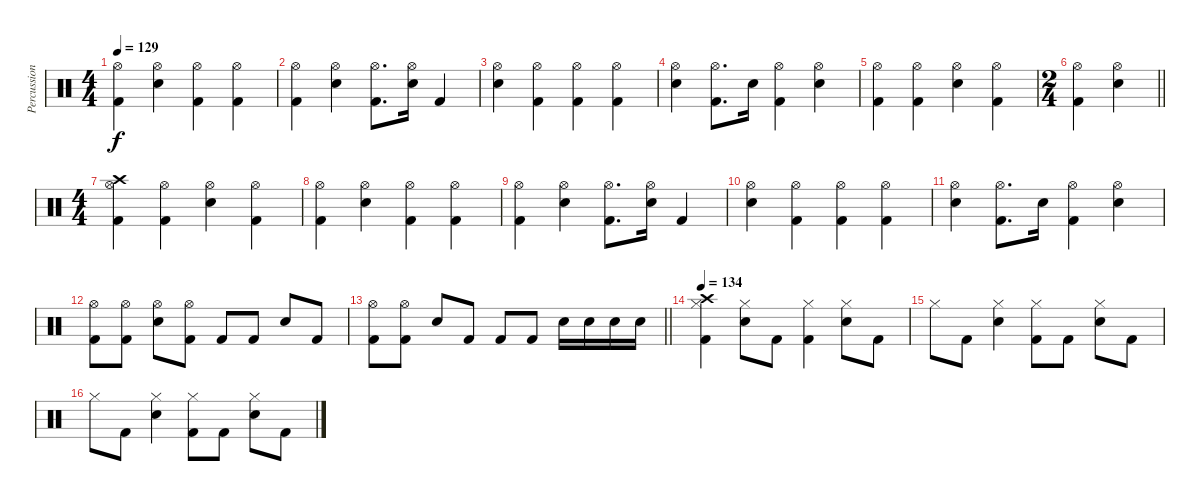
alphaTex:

\track ("Percussion" "Percussion") {instrument percussion}
\staff {score}
\articulation defaults
\ts (4 4)
\tempo 129
\clef neutral
\ks c
("Hi-Hat (open)" "Kick (hit) 2").4{dy f} ("Hi-Hat (open)" "Electric Snare (hit)").4 ("Hi-Hat (open)" "Kick (hit) 2").4 ("Hi-Hat (open)" "Kick (hit) 2").4 |
("Hi-Hat (open)" "Kick (hit) 2").4 ("Hi-Hat (open)" "Electric Snare (hit)").4 ("Hi-Hat (open)" "Kick (hit) 2").8{d} ("Hi-Hat (open)" "Electric Snare (hit)").16 "Kick (hit) 2".4 |
("Hi-Hat (open)" "Electric Snare (hit)").4 ("Hi-Hat (open)" "Kick (hit) 2").4 ("Hi-Hat (open)" "Kick (hit) 2").4 ("Hi-Hat (open)" "Kick (hit) 2").4 |
("Hi-Hat (open)" "Electric Snare (hit)").4 ("Hi-Hat (open)" "Kick (hit) 2").8{d} "Electric Snare (hit)".16 ("Hi-Hat (open)" "Kick (hit) 2").4 ("Hi-Hat (open)" "Electric Snare (hit)").4 |
("Hi-Hat (open)" "Kick (hit) 2").4 ("Hi-Hat (open)" "Kick (hit) 2").4 ("Hi-Hat (open)" "Electric Snare (hit)").4 ("Hi-Hat (open)" "Kick (hit) 2").4 |
\ts (2 4)
\barLineRight lightlight
("Hi-Hat (open)" "Kick (hit) 2").4 ("Hi-Hat (open)" "Electric Snare (hit)").4 |
\ts (4 4)
("Hi-Hat (open)" "Crash high (hit)" "Kick (hit) 2").4 ("Hi-Hat (open)" "Kick (hit) 2").4 ("Hi-Hat (open)" "Electric Snare (hit)").4 ("Hi-Hat (open)" "Kick (hit) 2").4 |
("Hi-Hat (open)" "Kick (hit) 2").4 ("Hi-Hat (open)" "Electric Snare (hit)").4 ("Hi-Hat (open)" "Kick (hit) 2").4 ("Hi-Hat (open)" "Kick (hit) 2").4 |
("Hi-Hat (open)" "Kick (hit) 2").4 ("Hi-Hat (open)" "Electric Snare (hit)").4 ("Hi-Hat (open)" "Kick (hit) 2").8{d} ("Hi-Hat (open)" "Electric Snare (hit)").16 "Kick (hit) 2".4 |
("Hi-Hat (open)" "Electric Snare (hit)").4 ("Hi-Hat (open)" "Kick (hit) 2").4 ("Hi-Hat (open)" "Kick (hit) 2").4 ("Hi-Hat (open)" "Kick (hit) 2").4 |
("Hi-Hat (open)" "Electric Snare (hit)").4 ("Hi-Hat (open)" "Kick (hit) 2").8{d} "Electric Snare (hit)".16 ("Hi-Hat (open)" "Kick (hit) 2").4 ("Hi-Hat (open)" "Electric Snare (hit)").4 |
("Hi-Hat (open)" "Kick (hit) 2").8 ("Hi-Hat (open)" "Kick (hit) 2").8 ("Hi-Hat (open)" "Electric Snare (hit)").8 ("Hi-Hat (open)" "Kick (hit) 2").8 "Kick (hit) 2".8 "Kick (hit) 2".8 "Electric Snare (hit)".8 "Kick (hit) 2".8 |
\barLineRight lightlight
("Hi-Hat (open)" "Kick (hit) 2").8 ("Hi-Hat (open)" "Kick (hit) 2").8 "Electric Snare (hit)".8 "Kick (hit) 2".8 "Kick (hit) 2".8 "Kick (hit) 2".8 "Electric Snare (hit)".16 "Electric Snare (hit)".16 "Electric Snare (hit)".16 "Electric Snare (hit)".16 |
\tempo 134
("Hi-Hat (closed)" "Crash high (hit)" "Kick (hit) 2").4 ("Hi-Hat (closed)" "Electric Snare (hit)").8 "Kick (hit) 2".8 ("Hi-Hat (closed)" "Kick (hit) 2").4 ("Hi-Hat (closed)" "Electric Snare (hit)").8 "Kick (hit) 2".8 |
"Hi-Hat (closed)".8 "Kick (hit) 2".8 ("Hi-Hat (closed)" "Electric Snare (hit)").4 ("Hi-Hat (closed)" "Kick (hit) 2").8 "Kick (hit) 2".8 ("Hi-Hat (closed)" "Electric Snare (hit)").8 "Kick (hit) 2".8 |
"Hi-Hat (closed)".8 "Kick (hit) 2".8 ("Hi-Hat (closed)" "Electric Snare (hit)").4 ("Hi-Hat (closed)" "Kick (hit) 2").8 "Kick (hit) 2".8 ("Hi-Hat (closed)" "Electric Snare (hit)").8 "Kick (hit) 2".8
